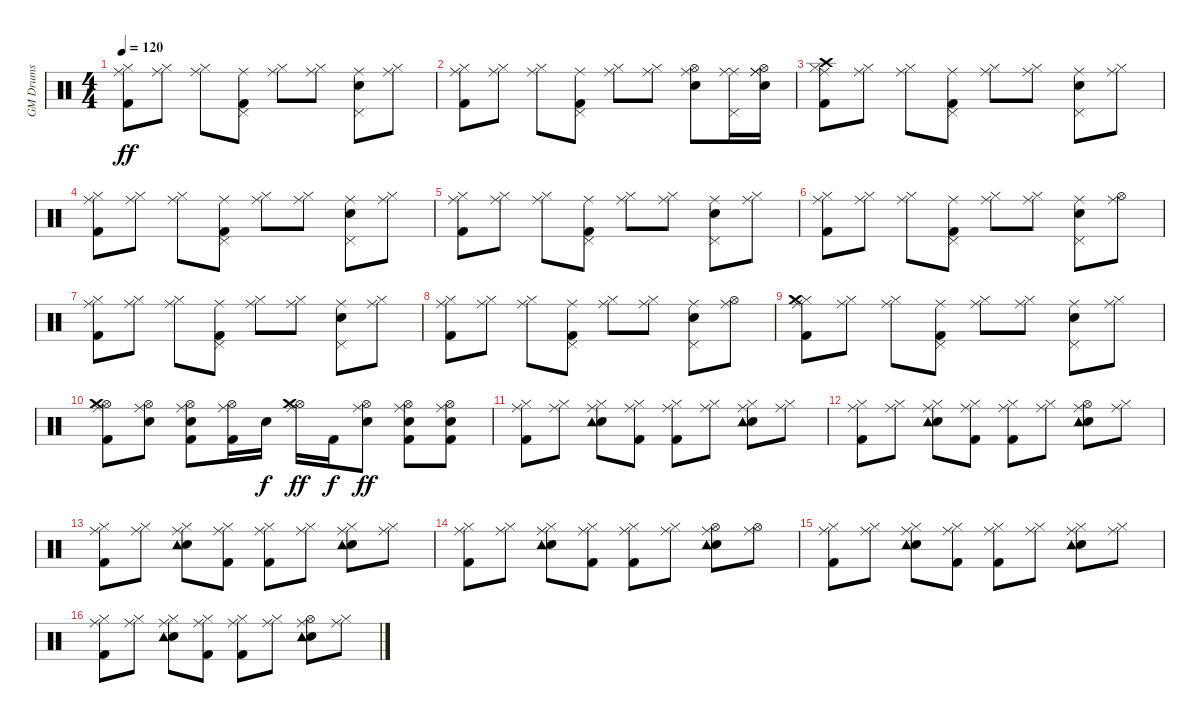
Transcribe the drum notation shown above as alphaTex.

\track ("GM Drums" "GM Drums") {instrument percussion}
\staff {score}
\articulation defaults
\ts (4 4)
\tempo 120
\clef neutral
\ks c
("Kick (hit) 2" "Hi-Hat (closed)" "Ride (middle)").8{dy ff} ("Hi-Hat (closed)" "Ride (middle)").8 ("Hi-Hat (closed)" "Ride (middle)").8 ("Kick (hit) 2" "Pedal Hi-Hat (hit)" "Ride (middle)").8 ("Hi-Hat (closed)" "Ride (middle)").8 ("Hi-Hat (closed)" "Ride (middle)").8 ("Electric Snare (hit)" "Pedal Hi-Hat (hit)" "Ride (middle)").8 ("Hi-Hat (closed)" "Ride (middle)").8 |
("Kick (hit) 2" "Hi-Hat (closed)" "Ride (middle)").8 ("Hi-Hat (closed)" "Ride (middle)").8 ("Hi-Hat (closed)" "Ride (middle)").8 ("Kick (hit) 2" "Pedal Hi-Hat (hit)" "Ride (middle)").8 ("Hi-Hat (closed)" "Ride (middle)").8 ("Hi-Hat (closed)" "Ride (middle)").8 ("Electric Snare (hit)" "Hi-Hat (open)" "Ride (middle)").8 ("Pedal Hi-Hat (hit)" "Ride (middle)" "Ride (middle)").16 ("Electric Snare (hit)" "Hi-Hat (open)" "Ride (middle)" "Ride (middle)").16 |
("Kick (hit) 2" "Hi-Hat (closed)" "Crash high (hit)" "Ride (middle)").8 ("Hi-Hat (closed)" "Ride (middle)").8 ("Hi-Hat (closed)" "Ride (middle)").8 ("Kick (hit) 2" "Pedal Hi-Hat (hit)" "Ride (middle)").8 ("Hi-Hat (closed)" "Ride (middle)").8 ("Hi-Hat (closed)" "Ride (middle)").8 ("Electric Snare (hit)" "Pedal Hi-Hat (hit)" "Ride (middle)").8 ("Hi-Hat (closed)" "Ride (middle)").8 |
("Kick (hit) 2" "Hi-Hat (closed)" "Ride (middle)").8 ("Hi-Hat (closed)" "Ride (middle)").8 ("Hi-Hat (closed)" "Ride (middle)").8 ("Kick (hit) 2" "Pedal Hi-Hat (hit)" "Ride (middle)").8 ("Hi-Hat (closed)" "Ride (middle)").8 ("Hi-Hat (closed)" "Ride (middle)").8 ("Electric Snare (hit)" "Pedal Hi-Hat (hit)" "Ride (middle)").8 ("Hi-Hat (closed)" "Ride (middle)").8 |
("Kick (hit) 2" "Hi-Hat (closed)" "Ride (middle)").8 ("Hi-Hat (closed)" "Ride (middle)").8 ("Hi-Hat (closed)" "Ride (middle)").8 ("Kick (hit) 2" "Pedal Hi-Hat (hit)" "Ride (middle)").8 ("Hi-Hat (closed)" "Ride (middle)").8 ("Hi-Hat (closed)" "Ride (middle)").8 ("Electric Snare (hit)" "Pedal Hi-Hat (hit)" "Ride (middle)").8 ("Hi-Hat (closed)" "Ride (middle)").8 |
("Kick (hit) 2" "Hi-Hat (closed)" "Ride (middle)").8 ("Hi-Hat (closed)" "Ride (middle)").8 ("Hi-Hat (closed)" "Ride (middle)").8 ("Kick (hit) 2" "Pedal Hi-Hat (hit)" "Ride (middle)").8 ("Hi-Hat (closed)" "Ride (middle)").8 ("Hi-Hat (closed)" "Ride (middle)").8 ("Electric Snare (hit)" "Pedal Hi-Hat (hit)" "Ride (middle)").8 ("Hi-Hat (open)" "Ride (middle)").8 |
("Kick (hit) 2" "Hi-Hat (closed)" "Ride (middle)").8 ("Hi-Hat (closed)" "Ride (middle)").8 ("Hi-Hat (closed)" "Ride (middle)").8 ("Kick (hit) 2" "Pedal Hi-Hat (hit)" "Ride (middle)").8 ("Hi-Hat (closed)" "Ride (middle)").8 ("Hi-Hat (closed)" "Ride (middle)").8 ("Electric Snare (hit)" "Pedal Hi-Hat (hit)" "Ride (middle)").8 ("Hi-Hat (closed)" "Ride (middle)").8 |
("Kick (hit) 2" "Hi-Hat (closed)" "Ride (middle)").8 ("Hi-Hat (closed)" "Ride (middle)").8 ("Hi-Hat (closed)" "Ride (middle)").8 ("Kick (hit) 2" "Pedal Hi-Hat (hit)" "Ride (middle)").8 ("Hi-Hat (closed)" "Ride (middle)").8 ("Hi-Hat (closed)" "Ride (middle)").8 ("Electric Snare (hit)" "Pedal Hi-Hat (hit)" "Ride (middle)").8 ("Hi-Hat (open)" "Ride (middle)").8 |
("Kick (hit) 2" "Hi-Hat (closed)" "Ride (middle)" "Crash medium (hit)").8 ("Hi-Hat (closed)" "Ride (middle)").8 ("Hi-Hat (closed)" "Ride (middle)").8 ("Kick (hit) 2" "Pedal Hi-Hat (hit)" "Ride (middle)").8 ("Hi-Hat (closed)" "Ride (middle)").8 ("Hi-Hat (closed)" "Ride (middle)").8 ("Electric Snare (hit)" "Pedal Hi-Hat (hit)" "Ride (middle)").8 ("Hi-Hat (closed)" "Ride (middle)").8 |
("Kick (hit) 2" "Hi-Hat (open)" "Ride (middle)" "Crash medium (hit)").8 ("Electric Snare (hit)" "Hi-Hat (open)" "Ride (middle)").8 ("Kick (hit) 2" "Electric Snare (hit)" "Hi-Hat (open)" "Ride (middle)").8 ("Kick (hit) 2" "Hi-Hat (open)" "Ride (middle)").16 "Electric Snare (hit)".16{dy f} ("Hi-Hat (open)" "Ride (middle)" "Crash medium (hit)").16{dy ff} "Kick (hit) 2".16{dy f} ("Electric Snare (hit)" "Hi-Hat (open)" "Ride (middle)").8{dy ff} ("Kick (hit) 2" "Electric Snare (hit)" "Hi-Hat (open)" "Ride (middle)").8 ("Kick (hit) 2" "Electric Snare (hit)" "Hi-Hat (open)" "Ride (middle)").8 |
("Kick (hit) 2" "Hi-Hat (closed)" "Ride (middle)").8 ("Hi-Hat (closed)" "Ride (middle)").8 ("Electric Snare (hit)" "Hi-Hat (closed)" "Ride (middle)" "Tambourine (hit)").8 ("Kick (hit) 2" "Hi-Hat (closed)" "Ride (middle)").8 ("Kick (hit) 2" "Hi-Hat (closed)" "Ride (middle)").8 ("Hi-Hat (closed)" "Ride (middle)").8 ("Electric Snare (hit)" "Hi-Hat (closed)" "Ride (middle)" "Tambourine (hit)").8 ("Hi-Hat (closed)" "Ride (middle)").8 |
("Kick (hit) 2" "Hi-Hat (closed)" "Ride (middle)").8 ("Hi-Hat (closed)" "Ride (middle)").8 ("Electric Snare (hit)" "Hi-Hat (closed)" "Ride (middle)" "Tambourine (hit)").8 ("Kick (hit) 2" "Hi-Hat (closed)" "Ride (middle)").8 ("Kick (hit) 2" "Hi-Hat (closed)" "Ride (middle)").8 ("Hi-Hat (closed)" "Ride (middle)").8 ("Electric Snare (hit)" "Hi-Hat (open)" "Ride (middle)" "Tambourine (hit)").8 ("Hi-Hat (closed)" "Ride (middle)").8 |
("Kick (hit) 2" "Hi-Hat (closed)" "Ride (middle)").8 ("Hi-Hat (closed)" "Ride (middle)").8 ("Electric Snare (hit)" "Hi-Hat (closed)" "Ride (middle)" "Tambourine (hit)").8 ("Kick (hit) 2" "Hi-Hat (closed)" "Ride (middle)").8 ("Kick (hit) 2" "Hi-Hat (closed)" "Ride (middle)").8 ("Hi-Hat (closed)" "Ride (middle)").8 ("Electric Snare (hit)" "Hi-Hat (closed)" "Ride (middle)" "Tambourine (hit)").8 ("Hi-Hat (closed)" "Ride (middle)").8 |
("Kick (hit) 2" "Hi-Hat (closed)" "Ride (middle)").8 ("Hi-Hat (closed)" "Ride (middle)").8 ("Electric Snare (hit)" "Hi-Hat (closed)" "Ride (middle)" "Tambourine (hit)").8 ("Kick (hit) 2" "Hi-Hat (closed)" "Ride (middle)").8 ("Kick (hit) 2" "Hi-Hat (closed)" "Ride (middle)").8 ("Hi-Hat (closed)" "Ride (middle)").8 ("Electric Snare (hit)" "Hi-Hat (open)" "Ride (middle)" "Tambourine (hit)").8 ("Hi-Hat (open)" "Ride (middle)").8 |
("Kick (hit) 2" "Hi-Hat (closed)" "Ride (middle)").8 ("Hi-Hat (closed)" "Ride (middle)").8 ("Electric Snare (hit)" "Hi-Hat (closed)" "Ride (middle)" "Tambourine (hit)").8 ("Kick (hit) 2" "Hi-Hat (closed)" "Ride (middle)").8 ("Kick (hit) 2" "Hi-Hat (closed)" "Ride (middle)").8 ("Hi-Hat (closed)" "Ride (middle)").8 ("Electric Snare (hit)" "Hi-Hat (closed)" "Ride (middle)" "Tambourine (hit)").8 ("Hi-Hat (closed)" "Ride (middle)").8 |
("Kick (hit) 2" "Hi-Hat (closed)" "Ride (middle)").8 ("Hi-Hat (closed)" "Ride (middle)").8 ("Electric Snare (hit)" "Hi-Hat (closed)" "Ride (middle)" "Tambourine (hit)").8 ("Kick (hit) 2" "Hi-Hat (closed)" "Ride (middle)").8 ("Kick (hit) 2" "Hi-Hat (closed)" "Ride (middle)").8 ("Hi-Hat (closed)" "Ride (middle)").8 ("Electric Snare (hit)" "Hi-Hat (open)" "Ride (middle)" "Tambourine (hit)").8 ("Hi-Hat (closed)" "Ride (middle)").8
